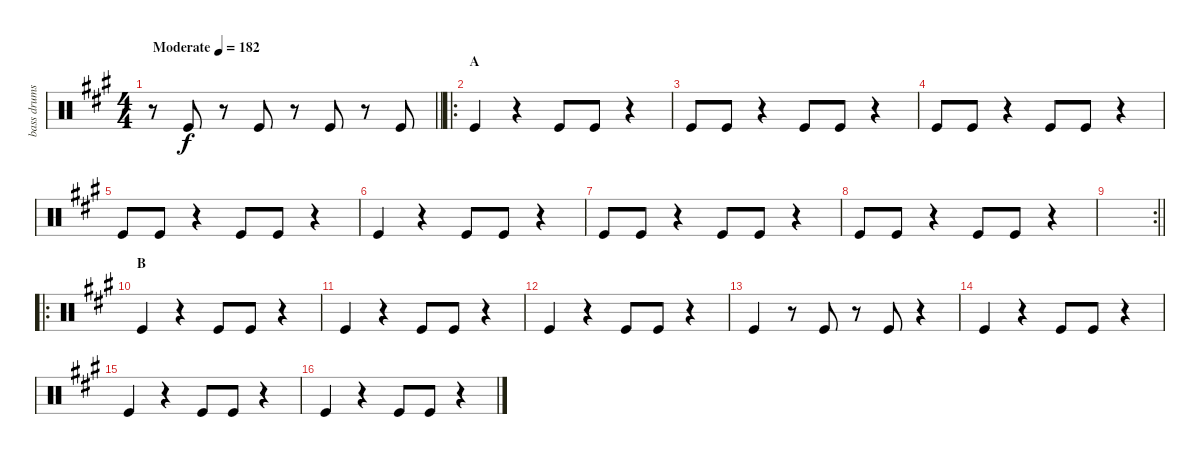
\track ("bass drums" "bass drums") {instrument percussion}
\staff {score}
\articulation defaults
\ts (4 4)
\tempo (182 "Moderate")
\clef neutral
\barLineRight lightlight
\ks f#minor
r.8{dy f} "Kick (hit)".8 r.8 "Kick (hit)".8 r.8 "Kick (hit)".8 r.8 "Kick (hit)".8 |
\ro
\section ("" "A")
"Kick (hit)".4 r.4 "Kick (hit)".8 "Kick (hit)".8 r.4 |
"Kick (hit)".8 "Kick (hit)".8 r.4 "Kick (hit)".8 "Kick (hit)".8 r.4 |
"Kick (hit)".8 "Kick (hit)".8 r.4 "Kick (hit)".8 "Kick (hit)".8 r.4 |
"Kick (hit)".8 "Kick (hit)".8 r.4 "Kick (hit)".8 "Kick (hit)".8 r.4 |
"Kick (hit)".4 r.4 "Kick (hit)".8 "Kick (hit)".8 r.4 |
"Kick (hit)".8 "Kick (hit)".8 r.4 "Kick (hit)".8 "Kick (hit)".8 r.4 |
"Kick (hit)".8 "Kick (hit)".8 r.4 "Kick (hit)".8 "Kick (hit)".8 r.4 |
\rc 2
\barLineRight lightlight
|
\ro
\section ("" "B")
"Kick (hit)".4 r.4 "Kick (hit)".8 "Kick (hit)".8 r.4 |
"Kick (hit)".4 r.4 "Kick (hit)".8 "Kick (hit)".8 r.4 |
"Kick (hit)".4 r.4 "Kick (hit)".8 "Kick (hit)".8 r.4 |
"Kick (hit)".4 r.8 "Kick (hit)".8 r.8 "Kick (hit)".8 r.4 |
"Kick (hit)".4 r.4 "Kick (hit)".8 "Kick (hit)".8 r.4 |
"Kick (hit)".4 r.4 "Kick (hit)".8 "Kick (hit)".8 r.4 |
"Kick (hit)".4 r.4 "Kick (hit)".8 "Kick (hit)".8 r.4
